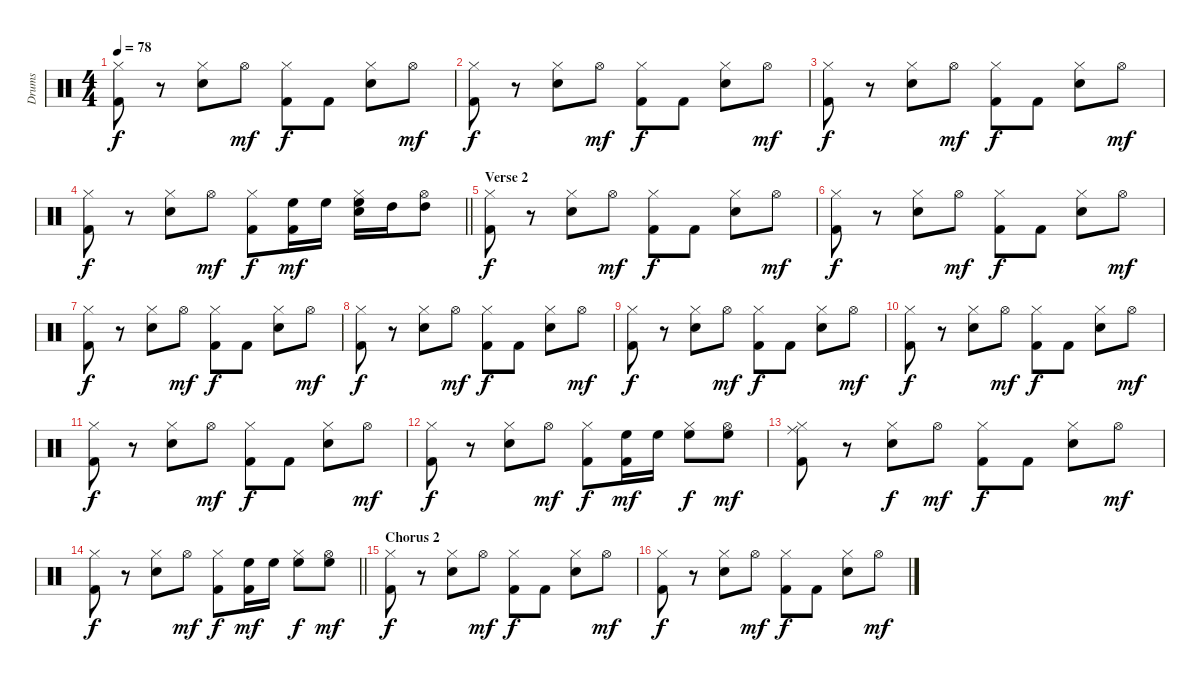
\track ("Drums" "Drums") {instrument percussion}
\staff {score}
\articulation defaults
\ts (4 4)
\tempo 78
\clef neutral
\ks c
("Hi-Hat (closed)" "Kick (hit) 2").8{dy f} r.8 ("Electric Snare (hit)" "Hi-Hat (closed)").8 "Hi-Hat (open)".8{dy mf} ("Hi-Hat (closed)" "Kick (hit) 2").8{dy f} "Kick (hit) 2".8 ("Electric Snare (hit)" "Hi-Hat (closed)").8 "Hi-Hat (open)".8{dy mf} |
("Hi-Hat (closed)" "Kick (hit) 2").8{dy f} r.8 ("Electric Snare (hit)" "Hi-Hat (closed)").8 "Hi-Hat (open)".8{dy mf} ("Hi-Hat (closed)" "Kick (hit) 2").8{dy f} "Kick (hit) 2".8 ("Electric Snare (hit)" "Hi-Hat (closed)").8 "Hi-Hat (open)".8{dy mf} |
("Hi-Hat (closed)" "Kick (hit) 2").8{dy f} r.8 ("Electric Snare (hit)" "Hi-Hat (closed)").8 "Hi-Hat (open)".8{dy mf} ("Hi-Hat (closed)" "Kick (hit) 2").8{dy f} "Kick (hit) 2".8 ("Electric Snare (hit)" "Hi-Hat (closed)").8 "Hi-Hat (open)".8{dy mf} |
\barLineRight lightlight
("Hi-Hat (closed)" "Kick (hit) 2").8{dy f} r.8 ("Electric Snare (hit)" "Hi-Hat (closed)").8 "Hi-Hat (open)".8{dy mf} ("Hi-Hat (closed)" "Kick (hit) 2").8{dy f} ("High Floor Tom (hit)" "Kick (hit) 2").16{dy mf} "High Floor Tom (hit)".16 ("High Floor Tom (hit)" "Electric Snare (hit)" "Hi-Hat (closed)").16 "High Tom (hit)".16 ("High Tom (hit)" "Hi-Hat (open)").8 |
\section ("" "Verse 2")
("Hi-Hat (closed)" "Kick (hit) 2").8{dy f} r.8 ("Electric Snare (hit)" "Hi-Hat (closed)").8 "Hi-Hat (open)".8{dy mf} ("Hi-Hat (closed)" "Kick (hit) 2").8{dy f} "Kick (hit) 2".8 ("Electric Snare (hit)" "Hi-Hat (closed)").8 "Hi-Hat (open)".8{dy mf} |
("Hi-Hat (closed)" "Kick (hit) 2").8{dy f} r.8 ("Electric Snare (hit)" "Hi-Hat (closed)").8 "Hi-Hat (open)".8{dy mf} ("Hi-Hat (closed)" "Kick (hit) 2").8{dy f} "Kick (hit) 2".8 ("Electric Snare (hit)" "Hi-Hat (closed)").8 "Hi-Hat (open)".8{dy mf} |
("Hi-Hat (closed)" "Kick (hit) 2").8{dy f} r.8 ("Electric Snare (hit)" "Hi-Hat (closed)").8 "Hi-Hat (open)".8{dy mf} ("Hi-Hat (closed)" "Kick (hit) 2").8{dy f} "Kick (hit) 2".8 ("Electric Snare (hit)" "Hi-Hat (closed)").8 "Hi-Hat (open)".8{dy mf} |
("Hi-Hat (closed)" "Kick (hit) 2").8{dy f} r.8 ("Electric Snare (hit)" "Hi-Hat (closed)").8 "Hi-Hat (open)".8{dy mf} ("Hi-Hat (closed)" "Kick (hit) 2").8{dy f} "Kick (hit) 2".8 ("Electric Snare (hit)" "Hi-Hat (closed)").8 "Hi-Hat (open)".8{dy mf} |
("Hi-Hat (closed)" "Kick (hit) 2").8{dy f} r.8 ("Electric Snare (hit)" "Hi-Hat (closed)").8 "Hi-Hat (open)".8{dy mf} ("Hi-Hat (closed)" "Kick (hit) 2").8{dy f} "Kick (hit) 2".8 ("Electric Snare (hit)" "Hi-Hat (closed)").8 "Hi-Hat (open)".8{dy mf} |
("Hi-Hat (closed)" "Kick (hit) 2").8{dy f} r.8 ("Electric Snare (hit)" "Hi-Hat (closed)").8 "Hi-Hat (open)".8{dy mf} ("Hi-Hat (closed)" "Kick (hit) 2").8{dy f} "Kick (hit) 2".8 ("Electric Snare (hit)" "Hi-Hat (closed)").8 "Hi-Hat (open)".8{dy mf} |
("Hi-Hat (closed)" "Kick (hit) 2").8{dy f} r.8 ("Electric Snare (hit)" "Hi-Hat (closed)").8 "Hi-Hat (open)".8{dy mf} ("Hi-Hat (closed)" "Kick (hit) 2").8{dy f} "Kick (hit) 2".8 ("Electric Snare (hit)" "Hi-Hat (closed)").8 "Hi-Hat (open)".8{dy mf} |
("Hi-Hat (closed)" "Kick (hit) 2").8{dy f} r.8 ("Electric Snare (hit)" "Hi-Hat (closed)").8 "Hi-Hat (open)".8{dy mf} ("Hi-Hat (closed)" "Kick (hit) 2").8{dy f} ("High Floor Tom (hit)" "Kick (hit) 2").16{dy mf} "High Floor Tom (hit)".16 ("High Floor Tom (hit)" "Hi-Hat (closed)").8{dy f} ("High Floor Tom (hit)" "Hi-Hat (open)").8{dy mf} |
("Ride (middle)" "Hi-Hat (closed)" "Kick (hit) 2").8 r.8 ("Electric Snare (hit)" "Hi-Hat (closed)").8{dy f} "Hi-Hat (open)".8{dy mf} ("Hi-Hat (closed)" "Kick (hit) 2").8{dy f} "Kick (hit) 2".8 ("Electric Snare (hit)" "Hi-Hat (closed)").8 "Hi-Hat (open)".8{dy mf} |
\barLineRight lightlight
("Hi-Hat (closed)" "Kick (hit) 2").8{dy f} r.8 ("Electric Snare (hit)" "Hi-Hat (closed)").8 "Hi-Hat (open)".8{dy mf} ("Hi-Hat (closed)" "Kick (hit) 2").8{dy f} ("High Floor Tom (hit)" "Kick (hit) 2").16{dy mf} "High Floor Tom (hit)".16 ("High Floor Tom (hit)" "Hi-Hat (closed)").8{dy f} ("High Floor Tom (hit)" "Hi-Hat (open)").8{dy mf} |
\section ("" "Chorus 2")
("Hi-Hat (closed)" "Kick (hit) 2").8{dy f} r.8 ("Electric Snare (hit)" "Hi-Hat (closed)").8 "Hi-Hat (open)".8{dy mf} ("Hi-Hat (closed)" "Kick (hit) 2").8{dy f} "Kick (hit) 2".8 ("Electric Snare (hit)" "Hi-Hat (closed)").8 "Hi-Hat (open)".8{dy mf} |
("Hi-Hat (closed)" "Kick (hit) 2").8{dy f} r.8 ("Electric Snare (hit)" "Hi-Hat (closed)").8 "Hi-Hat (open)".8{dy mf} ("Hi-Hat (closed)" "Kick (hit) 2").8{dy f} "Kick (hit) 2".8 ("Electric Snare (hit)" "Hi-Hat (closed)").8 "Hi-Hat (open)".8{dy mf}
